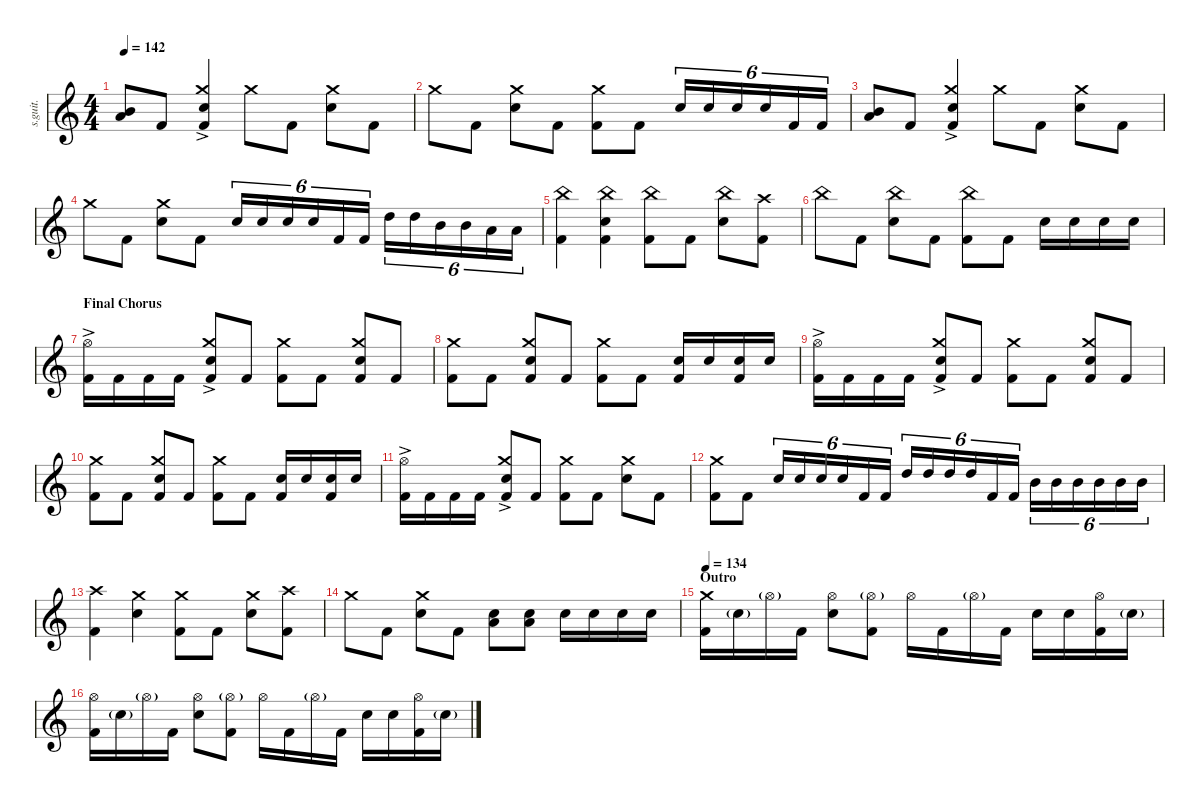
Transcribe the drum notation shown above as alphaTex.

\defaultSystemsLayout 4
\hideDynamics
\bracketExtendMode nobrackets
\track ("Joey Jordison RIP" "s.guit.") {instrument percussion}
\staff {score}
\articulation defaults
\ts (4 4)
\tempo 142
\clef g2
\ks c
("Mid Tom (hit)" "Low Floor Tom (hit)").8{dy fff} "Kick (hit) 2".8 ("Crash medium (hit)"{ac} "Kick (hit) 2"{ac} "Snare (hit) 2"{ac}).4 "Crash medium (hit)".8 "Kick (hit) 2".8 ("Crash medium (hit)" "Snare (hit) 2").8 "Kick (hit) 2".8 |
"Crash medium (hit)".8 "Kick (hit) 2".8 ("Crash medium (hit)" "Snare (hit) 2").8 "Kick (hit) 2".8 ("Crash medium (hit)" "Kick (hit) 2").8 "Kick (hit) 2".8 "Snare (hit) 2".16{tu (6 4)} "Snare (hit) 2".16{tu (6 4)} "Snare (hit) 2".16{tu (6 4)} "Snare (hit) 2".16{tu (6 4)} "Kick (hit) 2".16{tu (6 4)} "Kick (hit) 2".16{tu (6 4)} |
("Mid Tom (hit)" "Low Floor Tom (hit)").8 "Kick (hit) 2".8 ("Crash medium (hit)"{ac} "Kick (hit) 2"{ac} "Snare (hit) 2"{ac}).4 "Crash medium (hit)".8 "Kick (hit) 2".8 ("Crash medium (hit)" "Snare (hit) 2").8 "Kick (hit) 2".8 |
"Crash medium (hit)".8 "Kick (hit) 2".8 ("Crash medium (hit)" "Snare (hit) 2").8 "Kick (hit) 2".8 "Snare (hit) 2".16{tu (6 4)} "Snare (hit) 2".16{tu (6 4)} "Snare (hit) 2".16{tu (6 4)} "Snare (hit) 2".16{tu (6 4)} "Kick (hit) 2".16{tu (6 4)} "Kick (hit) 2".16{tu (6 4)} "High Tom (hit)".16{tu (6 4)} "High Tom (hit)".16{tu (6 4)} "Mid Tom (hit)".16{tu (6 4)} "Mid Tom (hit)".16{tu (6 4)} "Low Floor Tom (hit)".16{tu (6 4)} "Low Floor Tom (hit)".16{tu (6 4)} |
("China (hit)" "Kick (hit) 2").4 ("China (hit)" "Kick (hit) 2" "Snare (hit) 2").4 ("China (hit)" "Kick (hit) 2").8 "Kick (hit) 2".8 ("China (hit)" "Snare (hit) 2").8 ("Crash high (hit)" "Kick (hit) 2").8 |
"China (hit)".8 "Kick (hit) 2".8 ("China (hit)" "Snare (hit) 2").8 "Kick (hit) 2".8 ("China (hit)" "Kick (hit) 2").8 "Kick (hit) 2".8 "Snare (hit) 2".16 "Snare (hit) 2".16 "Snare (hit) 2".16 "Snare (hit) 2".16 |
\section ("" "Final Chorus")
("Hi-Hat (open)"{ac} "Kick (hit) 2").16 "Kick (hit) 2".16 "Kick (hit) 2".16 "Kick (hit) 2".16 ("Crash medium (hit)"{ac} "Kick (hit) 2"{ac} "Snare (hit) 2"{ac}).8 "Kick (hit) 2".8 ("Crash medium (hit)" "Kick (hit) 2").8 "Kick (hit) 2".8 ("Crash medium (hit)" "Kick (hit) 2" "Snare (hit) 2").8 "Kick (hit) 2".8 |
("Crash medium (hit)" "Kick (hit) 2").8 "Kick (hit) 2".8 ("Crash medium (hit)" "Kick (hit) 2" "Snare (hit) 2").8 "Kick (hit) 2".8 ("Crash medium (hit)" "Kick (hit) 2").8 "Kick (hit) 2".8 ("Kick (hit) 2" "Snare (hit) 2").16 "Snare (hit) 2".16 ("Kick (hit) 2" "Snare (hit) 2").16 "Snare (hit) 2".16 |
("Hi-Hat (open)"{ac} "Kick (hit) 2").16 "Kick (hit) 2".16 "Kick (hit) 2".16 "Kick (hit) 2".16 ("Crash medium (hit)"{ac} "Kick (hit) 2"{ac} "Snare (hit) 2"{ac}).8 "Kick (hit) 2".8 ("Crash medium (hit)" "Kick (hit) 2").8 "Kick (hit) 2".8 ("Crash medium (hit)" "Kick (hit) 2" "Snare (hit) 2").8 "Kick (hit) 2".8 |
("Crash medium (hit)" "Kick (hit) 2").8 "Kick (hit) 2".8 ("Crash medium (hit)" "Kick (hit) 2" "Snare (hit) 2").8 "Kick (hit) 2".8 ("Crash medium (hit)" "Kick (hit) 2").8 "Kick (hit) 2".8 ("Kick (hit) 2" "Snare (hit) 2").16 "Snare (hit) 2".16 ("Kick (hit) 2" "Snare (hit) 2").16 "Snare (hit) 2".16 |
("Hi-Hat (open)"{ac} "Kick (hit) 2").16 "Kick (hit) 2".16 "Kick (hit) 2".16 "Kick (hit) 2".16 ("Crash medium (hit)"{ac} "Kick (hit) 2"{ac} "Snare (hit) 2"{ac}).8 "Kick (hit) 2".8 ("Crash medium (hit)" "Kick (hit) 2").8 "Kick (hit) 2".8 ("Crash medium (hit)" "Snare (hit) 2").8 "Kick (hit) 2".8 |
("Crash medium (hit)" "Kick (hit) 2").8 "Kick (hit) 2".8 "Snare (hit) 2".16{tu (6 4)} "Snare (hit) 2".16{tu (6 4)} "Snare (hit) 2".16{tu (6 4)} "Snare (hit) 2".16{tu (6 4)} "Kick (hit) 2".16{tu (6 4)} "Kick (hit) 2".16{tu (6 4)} "High Tom (hit)".16{tu (6 4)} "High Tom (hit)".16{tu (6 4)} "High Tom (hit)".16{tu (6 4)} "High Tom (hit)".16{tu (6 4)} "Kick (hit) 2".16{tu (6 4)} "Kick (hit) 2".16{tu (6 4)} "Mid Tom (hit)".16{tu (6 4)} "Mid Tom (hit)".16{tu (6 4)} "Mid Tom (hit)".16{tu (6 4)} "Mid Tom (hit)".16{tu (6 4)} "Mid Tom (hit)".16{tu (6 4)} "Mid Tom (hit)".16{tu (6 4)} |
("Kick (hit) 2" "Crash high (hit)").4 ("Crash medium (hit)" "Snare (hit) 2").4 ("Crash medium (hit)" "Kick (hit) 2").8 "Kick (hit) 2".8 ("Crash medium (hit)" "Snare (hit) 2").8 ("Crash high (hit)" "Kick (hit) 2").8 |
"Crash medium (hit)".8 "Kick (hit) 2".8 ("Crash medium (hit)" "Snare (hit) 2").8 "Kick (hit) 2".8 ("Low Floor Tom (hit)" "Snare (hit) 2").8 ("Low Floor Tom (hit)" "Snare (hit) 2").8 "Snare (hit) 2".16 "Snare (hit) 2".16 "Snare (hit) 2".16 "Snare (hit) 2".16 |
\section ("" "Outro")
\tempo 134
("Crash medium (hit)" "Kick (hit) 2").16 "Snare (hit) 2"{g}.16 "Hi-Hat (open)"{g}.16 "Kick (hit) 2".16 ("Hi-Hat (open)" "Snare (hit) 2").8 ("Hi-Hat (open)"{g} "Kick (hit) 2").8 "Hi-Hat (open)".16 "Kick (hit) 2".16 "Hi-Hat (open)"{g}.16 "Kick (hit) 2".16 "Snare (hit) 2".16 "Snare (hit) 2".16 ("Hi-Hat (open)" "Kick (hit) 2").16 "Snare (hit) 2"{g}.16 |
("Hi-Hat (open)" "Kick (hit) 2").16 "Snare (hit) 2"{g}.16 "Hi-Hat (open)"{g}.16 "Kick (hit) 2".16 ("Hi-Hat (open)" "Snare (hit) 2").8 ("Hi-Hat (open)"{g} "Kick (hit) 2").8 "Hi-Hat (open)".16 "Kick (hit) 2".16 "Hi-Hat (open)"{g}.16 "Kick (hit) 2".16 "Snare (hit) 2".16 "Snare (hit) 2".16 ("Hi-Hat (open)" "Kick (hit) 2").16 "Snare (hit) 2"{g}.16
